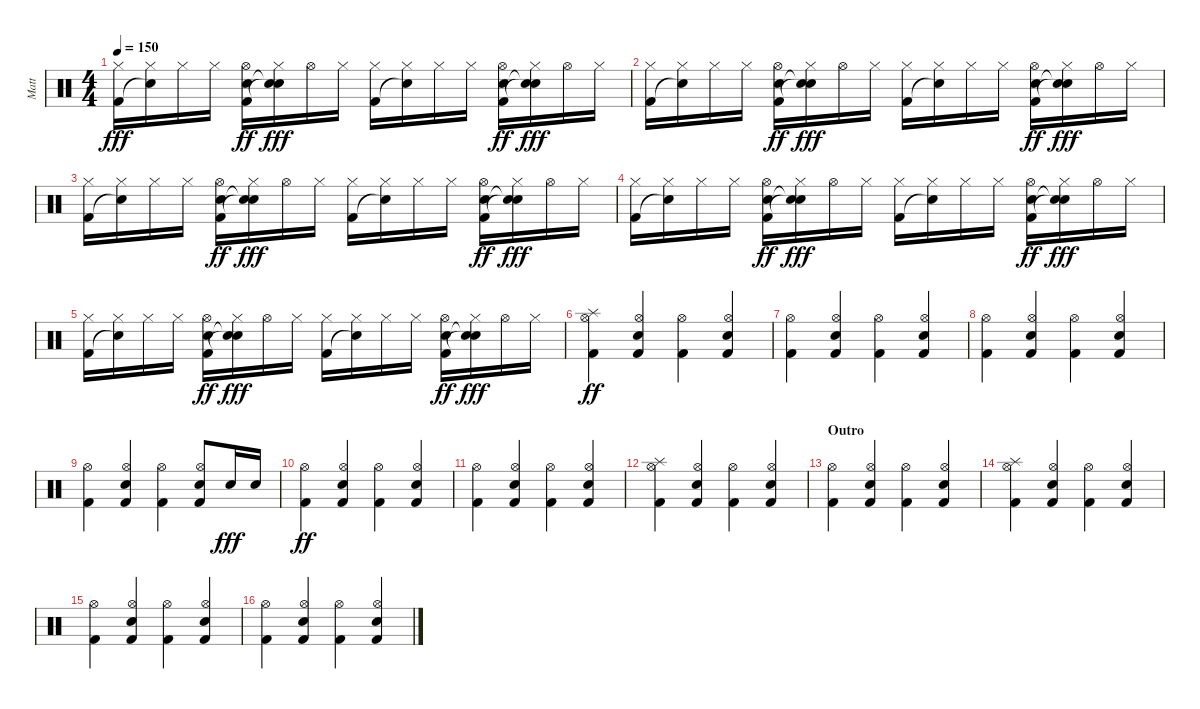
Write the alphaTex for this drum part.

\track ("Matt" "Matt") {instrument percussion}
\staff {score}
\articulation defaults
\ts (4 4)
\tempo 150
\clef neutral
\ks c
("Hi-Hat (closed)" "Kick (hit) 2").16{dy fff} ("Hi-Hat (closed)" "Snare (hit)"{t}).16 "Hi-Hat (closed)".16 "Hi-Hat (closed)".16 ("Hi-Hat (open)" "Electric Snare (hit)" "Kick (hit) 2").16{dy ff} ("Hi-Hat (closed)" "Snare (hit)"{t} "Snare (hit)"{t}).16{dy fff} "Hi-Hat (open)".16 "Hi-Hat (closed)".16 ("Hi-Hat (closed)" "Kick (hit) 2").16 ("Hi-Hat (closed)" "Snare (hit)"{t}).16 "Hi-Hat (closed)".16 "Hi-Hat (closed)".16 ("Hi-Hat (open)" "Electric Snare (hit)" "Kick (hit) 2").16{dy ff} ("Hi-Hat (closed)" "Snare (hit)"{t} "Snare (hit)"{t}).16{dy fff} "Hi-Hat (open)".16 "Hi-Hat (closed)".16 |
("Hi-Hat (closed)" "Kick (hit) 2").16 ("Hi-Hat (closed)" "Snare (hit)"{t}).16 "Hi-Hat (closed)".16 "Hi-Hat (closed)".16 ("Hi-Hat (open)" "Electric Snare (hit)" "Kick (hit) 2").16{dy ff} ("Hi-Hat (closed)" "Snare (hit)"{t} "Snare (hit)"{t}).16{dy fff} "Hi-Hat (open)".16 "Hi-Hat (closed)".16 ("Hi-Hat (closed)" "Kick (hit) 2").16 ("Hi-Hat (closed)" "Snare (hit)"{t}).16 "Hi-Hat (closed)".16 "Hi-Hat (closed)".16 ("Hi-Hat (open)" "Electric Snare (hit)" "Kick (hit) 2").16{dy ff} ("Hi-Hat (closed)" "Snare (hit)"{t} "Snare (hit)"{t}).16{dy fff} "Hi-Hat (open)".16 "Hi-Hat (closed)".16 |
("Hi-Hat (closed)" "Kick (hit) 2").16 ("Hi-Hat (closed)" "Snare (hit)"{t}).16 "Hi-Hat (closed)".16 "Hi-Hat (closed)".16 ("Hi-Hat (open)" "Electric Snare (hit)" "Kick (hit) 2").16{dy ff} ("Hi-Hat (closed)" "Snare (hit)"{t} "Snare (hit)"{t}).16{dy fff} "Hi-Hat (open)".16 "Hi-Hat (closed)".16 ("Hi-Hat (closed)" "Kick (hit) 2").16 ("Hi-Hat (closed)" "Snare (hit)"{t}).16 "Hi-Hat (closed)".16 "Hi-Hat (closed)".16 ("Hi-Hat (open)" "Electric Snare (hit)" "Kick (hit) 2").16{dy ff} ("Hi-Hat (closed)" "Snare (hit)"{t} "Snare (hit)"{t}).16{dy fff} "Hi-Hat (open)".16 "Hi-Hat (closed)".16 |
("Hi-Hat (closed)" "Kick (hit) 2").16 ("Hi-Hat (closed)" "Snare (hit)"{t}).16 "Hi-Hat (closed)".16 "Hi-Hat (closed)".16 ("Hi-Hat (open)" "Electric Snare (hit)" "Kick (hit) 2").16{dy ff} ("Hi-Hat (closed)" "Snare (hit)"{t} "Snare (hit)"{t}).16{dy fff} "Hi-Hat (open)".16 "Hi-Hat (closed)".16 ("Hi-Hat (closed)" "Kick (hit) 2").16 ("Hi-Hat (closed)" "Snare (hit)"{t}).16 "Hi-Hat (closed)".16 "Hi-Hat (closed)".16 ("Hi-Hat (open)" "Electric Snare (hit)" "Kick (hit) 2").16{dy ff} ("Hi-Hat (closed)" "Snare (hit)"{t} "Snare (hit)"{t}).16{dy fff} "Hi-Hat (open)".16 "Hi-Hat (closed)".16 |
("Hi-Hat (closed)" "Kick (hit) 2").16 ("Hi-Hat (closed)" "Snare (hit)"{t}).16 "Hi-Hat (closed)".16 "Hi-Hat (closed)".16 ("Hi-Hat (open)" "Electric Snare (hit)" "Kick (hit) 2").16{dy ff} ("Hi-Hat (closed)" "Snare (hit)"{t} "Snare (hit)"{t}).16{dy fff} "Hi-Hat (open)".16 "Hi-Hat (closed)".16 ("Hi-Hat (closed)" "Kick (hit) 2").16 ("Hi-Hat (closed)" "Snare (hit)"{t}).16 "Hi-Hat (closed)".16 "Hi-Hat (closed)".16 ("Hi-Hat (open)" "Electric Snare (hit)" "Kick (hit) 2").16{dy ff} ("Hi-Hat (closed)" "Snare (hit)"{t} "Snare (hit)"{t}).16{dy fff} "Hi-Hat (open)".16 "Hi-Hat (closed)".16 |
("Splash (hit)" "Hi-Hat (open)" "Kick (hit) 2").4{dy ff} ("Hi-Hat (open)" "Electric Snare (hit)" "Kick (hit) 2").4 ("Hi-Hat (open)" "Kick (hit) 2").4 ("Hi-Hat (open)" "Electric Snare (hit)" "Kick (hit) 2").4 |
("Hi-Hat (open)" "Kick (hit) 2").4 ("Hi-Hat (open)" "Electric Snare (hit)" "Kick (hit) 2").4 ("Hi-Hat (open)" "Kick (hit) 2").4 ("Hi-Hat (open)" "Electric Snare (hit)" "Kick (hit) 2").4 |
("Hi-Hat (open)" "Kick (hit) 2").4 ("Hi-Hat (open)" "Electric Snare (hit)" "Kick (hit) 2").4 ("Hi-Hat (open)" "Kick (hit) 2").4 ("Hi-Hat (open)" "Electric Snare (hit)" "Kick (hit) 2").4 |
("Hi-Hat (open)" "Kick (hit) 2").4 ("Hi-Hat (open)" "Electric Snare (hit)" "Kick (hit) 2").4 ("Hi-Hat (open)" "Kick (hit) 2").4 ("Hi-Hat (open)" "Electric Snare (hit)" "Kick (hit) 2").8 "Electric Snare (hit)".16{dy fff} "Electric Snare (hit)".16 |
("Hi-Hat (open)" "Kick (hit) 2").4{dy ff} ("Hi-Hat (open)" "Electric Snare (hit)" "Kick (hit) 2").4 ("Hi-Hat (open)" "Kick (hit) 2").4 ("Hi-Hat (open)" "Electric Snare (hit)" "Kick (hit) 2").4 |
("Hi-Hat (open)" "Kick (hit) 2").4 ("Hi-Hat (open)" "Electric Snare (hit)" "Kick (hit) 2").4 ("Hi-Hat (open)" "Kick (hit) 2").4 ("Hi-Hat (open)" "Electric Snare (hit)" "Kick (hit) 2").4 |
("Splash (hit)" "Hi-Hat (open)" "Kick (hit) 2").4 ("Hi-Hat (open)" "Electric Snare (hit)" "Kick (hit) 2").4 ("Hi-Hat (open)" "Kick (hit) 2").4 ("Hi-Hat (open)" "Electric Snare (hit)" "Kick (hit) 2").4 |
\section ("" "Outro")
("Hi-Hat (open)" "Kick (hit) 2").4 ("Hi-Hat (open)" "Electric Snare (hit)" "Kick (hit) 2").4 ("Hi-Hat (open)" "Kick (hit) 2").4 ("Hi-Hat (open)" "Electric Snare (hit)" "Kick (hit) 2").4 |
("Splash (hit)" "Hi-Hat (open)" "Kick (hit) 2").4 ("Hi-Hat (open)" "Electric Snare (hit)" "Kick (hit) 2").4 ("Hi-Hat (open)" "Kick (hit) 2").4 ("Hi-Hat (open)" "Electric Snare (hit)" "Kick (hit) 2").4 |
("Hi-Hat (open)" "Kick (hit) 2").4 ("Hi-Hat (open)" "Electric Snare (hit)" "Kick (hit) 2").4 ("Hi-Hat (open)" "Kick (hit) 2").4 ("Hi-Hat (open)" "Electric Snare (hit)" "Kick (hit) 2").4 |
("Hi-Hat (open)" "Kick (hit) 2").4 ("Hi-Hat (open)" "Electric Snare (hit)" "Kick (hit) 2").4 ("Hi-Hat (open)" "Kick (hit) 2").4 ("Hi-Hat (open)" "Electric Snare (hit)" "Kick (hit) 2").4
